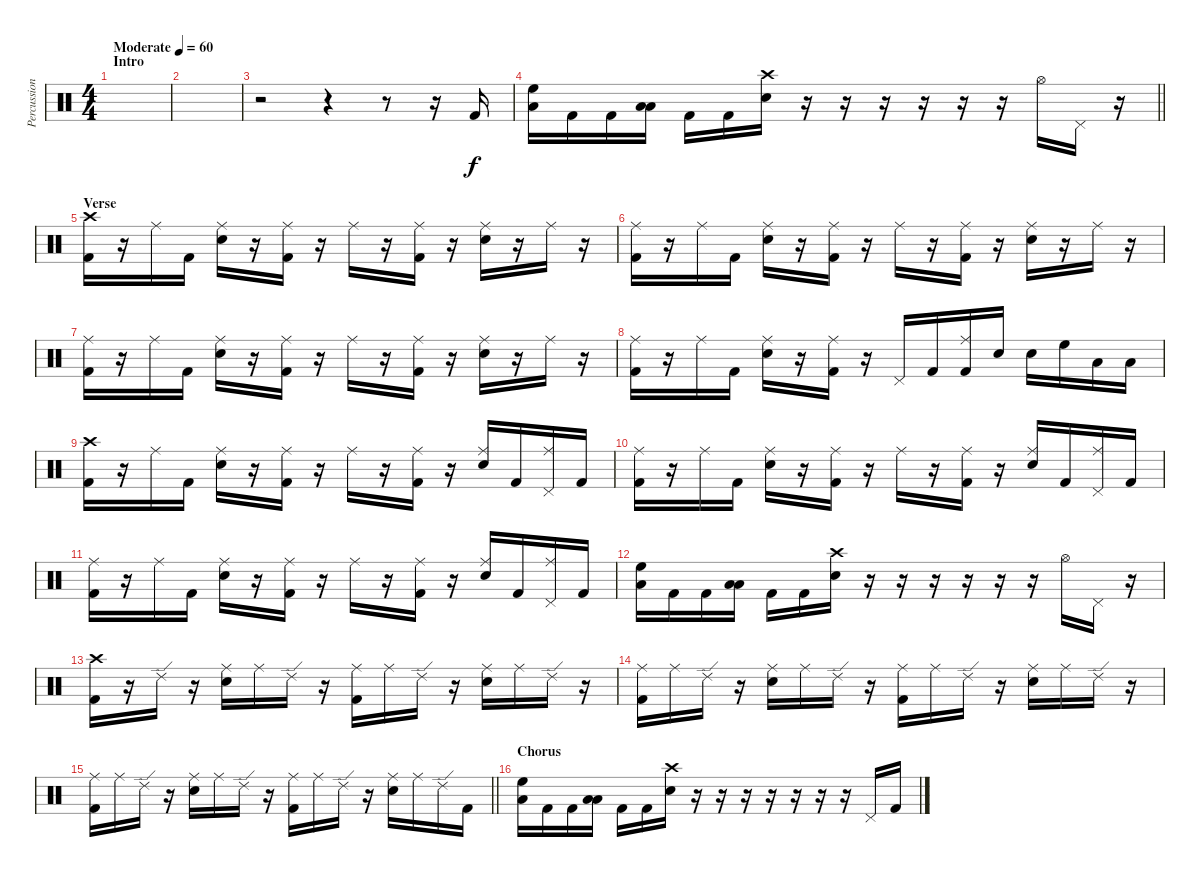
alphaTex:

\track ("Percussion" "Percussion") {instrument percussion}
\staff {score}
\articulation defaults
\ts (4 4)
\section ("" "Intro")
\tempo (60 "Moderate")
\clef neutral
\ks c
|
|
r.2 r.4 r.8 r.16 "Kick (hit) 2".16 |
\barLineRight lightlight
("High Floor Tom (hit)" "Low Tom (hit)").16 "Kick (hit) 2".16 "Kick (hit) 2".16 ("Low Tom (hit)" "Low Floor Tom (hit)").16 "Kick (hit) 2".16 "Kick (hit) 2".16 ("Crash high (hit)" "Electric Snare (hit)").16 r.16 r.16 r.16 r.16 r.16 r.16 "Hi-Hat (open)".16 "Pedal Hi-Hat (hit)".16 r.16 |
\section ("" "Verse")
("Crash high (hit)" "Kick (hit) 2").16 r.16 "Ride (middle)".16 "Kick (hit) 2".16 ("Ride (middle)" "Electric Snare (hit)").16 r.16 ("Ride (middle)" "Kick (hit) 2").16 r.16 "Ride (middle)".16 r.16 ("Ride (middle)" "Kick (hit) 2").16 r.16 ("Ride (middle)" "Electric Snare (hit)").16 r.16 "Ride (middle)".16 r.16 |
("Ride (middle)" "Kick (hit) 2").16 r.16 "Ride (middle)".16 "Kick (hit) 2".16 ("Ride (middle)" "Electric Snare (hit)").16 r.16 ("Ride (middle)" "Kick (hit) 2").16 r.16 "Ride (middle)".16 r.16 ("Ride (middle)" "Kick (hit) 2").16 r.16 ("Ride (middle)" "Electric Snare (hit)").16 r.16 "Ride (middle)".16 r.16 |
("Ride (middle)" "Kick (hit) 2").16 r.16 "Ride (middle)".16 "Kick (hit) 2".16 ("Ride (middle)" "Electric Snare (hit)").16 r.16 ("Ride (middle)" "Kick (hit) 2").16 r.16 "Ride (middle)".16 r.16 ("Ride (middle)" "Kick (hit) 2").16 r.16 ("Ride (middle)" "Electric Snare (hit)").16 r.16 "Ride (middle)".16 r.16 |
("Ride (middle)" "Kick (hit) 2").16 r.16 "Ride (middle)".16 "Kick (hit) 2".16 ("Ride (middle)" "Electric Snare (hit)").16 r.16 ("Ride (middle)" "Kick (hit) 2").16 r.16 "Pedal Hi-Hat (hit)".16 "Kick (hit) 2".16 ("Ride (middle)" "Kick (hit) 2").16 "Electric Snare (hit)".16 "Electric Snare (hit)".16 "High Floor Tom (hit)".16 "Low Tom (hit)".16 "Low Floor Tom (hit)".16 |
("Crash high (hit)" "Kick (hit) 2").16 r.16 "Ride (middle)".16 "Kick (hit) 2".16 ("Ride (middle)" "Electric Snare (hit)").16 r.16 ("Ride (middle)" "Kick (hit) 2").16 r.16 "Ride (middle)".16 r.16 ("Ride (middle)" "Kick (hit) 2").16 r.16 ("Ride (middle)" "Electric Snare (hit)").16 "Kick (hit) 2".16 ("Pedal Hi-Hat (hit)" "Ride (middle)").16 "Kick (hit) 2".16 |
("Ride (middle)" "Kick (hit) 2").16 r.16 "Ride (middle)".16 "Kick (hit) 2".16 ("Ride (middle)" "Electric Snare (hit)").16 r.16 ("Ride (middle)" "Kick (hit) 2").16 r.16 "Ride (middle)".16 r.16 ("Ride (middle)" "Kick (hit) 2").16 r.16 ("Ride (middle)" "Electric Snare (hit)").16 "Kick (hit) 2".16 ("Pedal Hi-Hat (hit)" "Ride (middle)").16 "Kick (hit) 2".16 |
("Ride (middle)" "Kick (hit) 2").16 r.16 "Ride (middle)".16 "Kick (hit) 2".16 ("Ride (middle)" "Electric Snare (hit)").16 r.16 ("Ride (middle)" "Kick (hit) 2").16 r.16 "Ride (middle)".16 r.16 ("Ride (middle)" "Kick (hit) 2").16 r.16 ("Ride (middle)" "Electric Snare (hit)").16 "Kick (hit) 2".16 ("Pedal Hi-Hat (hit)" "Ride (middle)").16 "Kick (hit) 2".16 |
("High Floor Tom (hit)" "Low Tom (hit)").16 "Kick (hit) 2".16 "Kick (hit) 2".16 ("Low Tom (hit)" "Low Floor Tom (hit)").16 "Kick (hit) 2".16 "Kick (hit) 2".16 ("Crash high (hit)" "Electric Snare (hit)").16 r.16 r.16 r.16 r.16 r.16 r.16 "Hi-Hat (open)".16 "Pedal Hi-Hat (hit)".16 r.16 |
("Crash high (hit)" "Kick (hit) 2").16 r.16 "Ride (edge) 2".16 r.16 ("Ride (middle)" "Electric Snare (hit)").16 "Ride (middle)".16 "Ride (edge) 2".16 r.16 ("Ride (middle)" "Kick (hit) 2").16 "Ride (middle)".16 "Ride (edge) 2".16 r.16 ("Ride (middle)" "Electric Snare (hit)").16 "Ride (middle)".16 "Ride (edge) 2".16 r.16 |
("Ride (middle)" "Kick (hit) 2").16 "Ride (middle)".16 "Ride (edge) 2".16 r.16 ("Ride (middle)" "Electric Snare (hit)").16 "Ride (middle)".16 "Ride (edge) 2".16 r.16 ("Ride (middle)" "Kick (hit) 2").16 "Ride (middle)".16 "Ride (edge) 2".16 r.16 ("Ride (middle)" "Electric Snare (hit)").16 "Ride (middle)".16 "Ride (edge) 2".16 r.16 |
\barLineRight lightlight
("Ride (middle)" "Kick (hit) 2").16 "Ride (middle)".16 "Ride (edge) 2".16 r.16 ("Ride (middle)" "Electric Snare (hit)").16 "Ride (middle)".16 "Ride (edge) 2".16 r.16 ("Ride (middle)" "Kick (hit) 2").16 "Ride (middle)".16 "Ride (edge) 2".16 r.16 ("Ride (middle)" "Electric Snare (hit)").16 "Ride (middle)".16 "Ride (edge) 2".16 "Kick (hit) 2".16 |
\section ("" "Chorus")
("High Floor Tom (hit)" "Low Tom (hit)").16 "Kick (hit) 2".16 "Kick (hit) 2".16 ("Low Tom (hit)" "Low Floor Tom (hit)").16 "Kick (hit) 2".16 "Kick (hit) 2".16 ("Crash high (hit)" "Electric Snare (hit)").16 r.16 r.16 r.16 r.16 r.16 r.16 r.16 "Pedal Hi-Hat (hit)".16 "Kick (hit) 2".16
